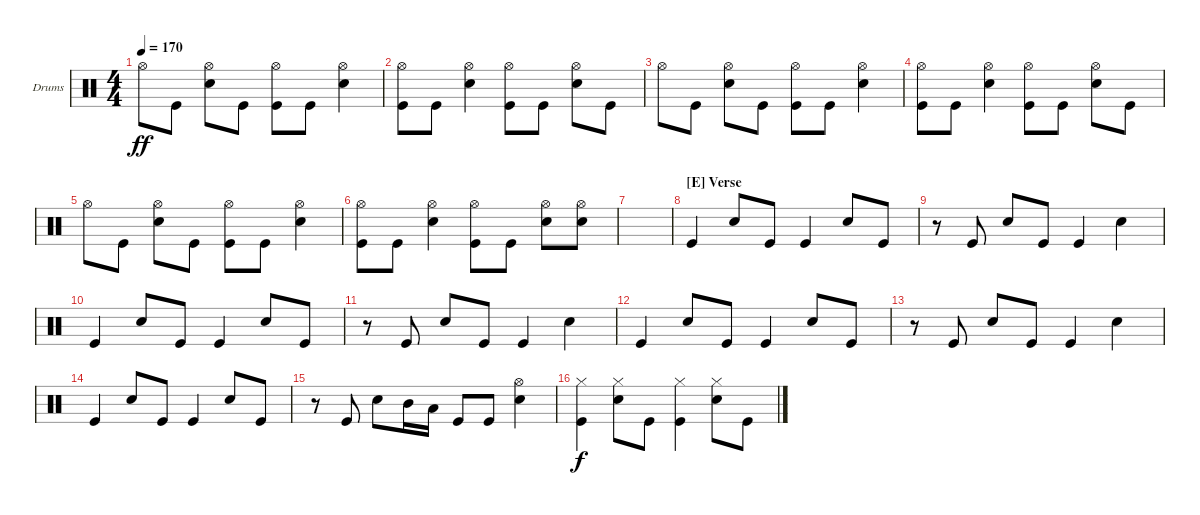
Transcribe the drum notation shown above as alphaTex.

\defaultSystemsLayout 4
\bracketExtendMode groupsimilarinstruments
\firstSystemTrackNameOrientation horizontal
\otherSystemsTrackNameOrientation horizontal
\track ("Benny Horowitz" "Drums") {instrument percussion}
\staff {score}
\articulation defaults
\ts (4 4)
\tempo 170
\clef neutral
\ks c "Hi-Hat (open)".8{dy ff} "Kick (hit)".8
("Snare (hit) 2" "Hi-Hat (open)").8 "Kick (hit)".8 ("Kick (hit)" "Hi-Hat (open)").8 "Kick (hit)".8 ("Snare (hit) 2" "Hi-Hat (open)").4 |
("Kick (hit)" "Hi-Hat (open)").8 "Kick (hit)".8 ("Snare (hit) 2" "Hi-Hat (open)").4 ("Kick (hit)" "Hi-Hat (open)").8 "Kick (hit)".8 ("Snare (hit) 2" "Hi-Hat (open)").8 "Kick (hit)".8 |
"Hi-Hat (open)".8 "Kick (hit)".8 ("Snare (hit) 2" "Hi-Hat (open)").8 "Kick (hit)".8 ("Kick (hit)" "Hi-Hat (open)").8 "Kick (hit)".8 ("Snare (hit) 2" "Hi-Hat (open)").4 |
("Kick (hit)" "Hi-Hat (open)").8 "Kick (hit)".8 ("Snare (hit) 2" "Hi-Hat (open)").4 ("Kick (hit)" "Hi-Hat (open)").8 "Kick (hit)".8 ("Snare (hit) 2" "Hi-Hat (open)").8 "Kick (hit)".8 |
"Hi-Hat (open)".8 "Kick (hit)".8 ("Snare (hit) 2" "Hi-Hat (open)").8 "Kick (hit)".8 ("Kick (hit)" "Hi-Hat (open)").8 "Kick (hit)".8 ("Snare (hit) 2" "Hi-Hat (open)").4 |
("Kick (hit)" "Hi-Hat (open)").8 "Kick (hit)".8 ("Snare (hit) 2" "Hi-Hat (open)").4 ("Kick (hit)" "Hi-Hat (open)").8 "Kick (hit)".8 ("Snare (hit) 2" "Hi-Hat (open)").8 ("Snare (hit) 2" "Hi-Hat (open)").8 |
|
\section ("E" "Verse")
"Kick (hit)".4 "Snare (hit) 2".8 "Kick (hit)".8 "Kick (hit)".4 "Snare (hit) 2".8 "Kick (hit)".8 |
r.8 "Kick (hit)".8 "Snare (hit) 2".8 "Kick (hit)".8 "Kick (hit)".4 "Snare (hit) 2".4 |
"Kick (hit)".4 "Snare (hit) 2".8 "Kick (hit)".8 "Kick (hit)".4 "Snare (hit) 2".8 "Kick (hit)".8 |
r.8 "Kick (hit)".8 "Snare (hit) 2".8 "Kick (hit)".8 "Kick (hit)".4 "Snare (hit) 2".4 |
"Kick (hit)".4 "Snare (hit) 2".8 "Kick (hit)".8 "Kick (hit)".4 "Snare (hit) 2".8 "Kick (hit)".8 |
r.8 "Kick (hit)".8 "Snare (hit) 2".8 "Kick (hit)".8 "Kick (hit)".4 "Snare (hit) 2".4 |
"Kick (hit)".4 "Snare (hit) 2".8 "Kick (hit)".8 "Kick (hit)".4 "Snare (hit) 2".8 "Kick (hit)".8 |
r.8 "Kick (hit)".8 "Snare (hit) 2".8 "Mid Tom (hit)".16 "Low Tom (hit)".16 "Kick (hit)".8 "Kick (hit)".8 ("Snare (hit) 2" "Hi-Hat (open)").4 |
("Kick (hit)" "Hi-Hat (closed)").4{dy f} ("Snare (hit) 2" "Hi-Hat (closed)").8 "Kick (hit)".8 ("Kick (hit)" "Hi-Hat (closed)").4 ("Snare (hit) 2" "Hi-Hat (closed)").8 "Kick (hit)".8
